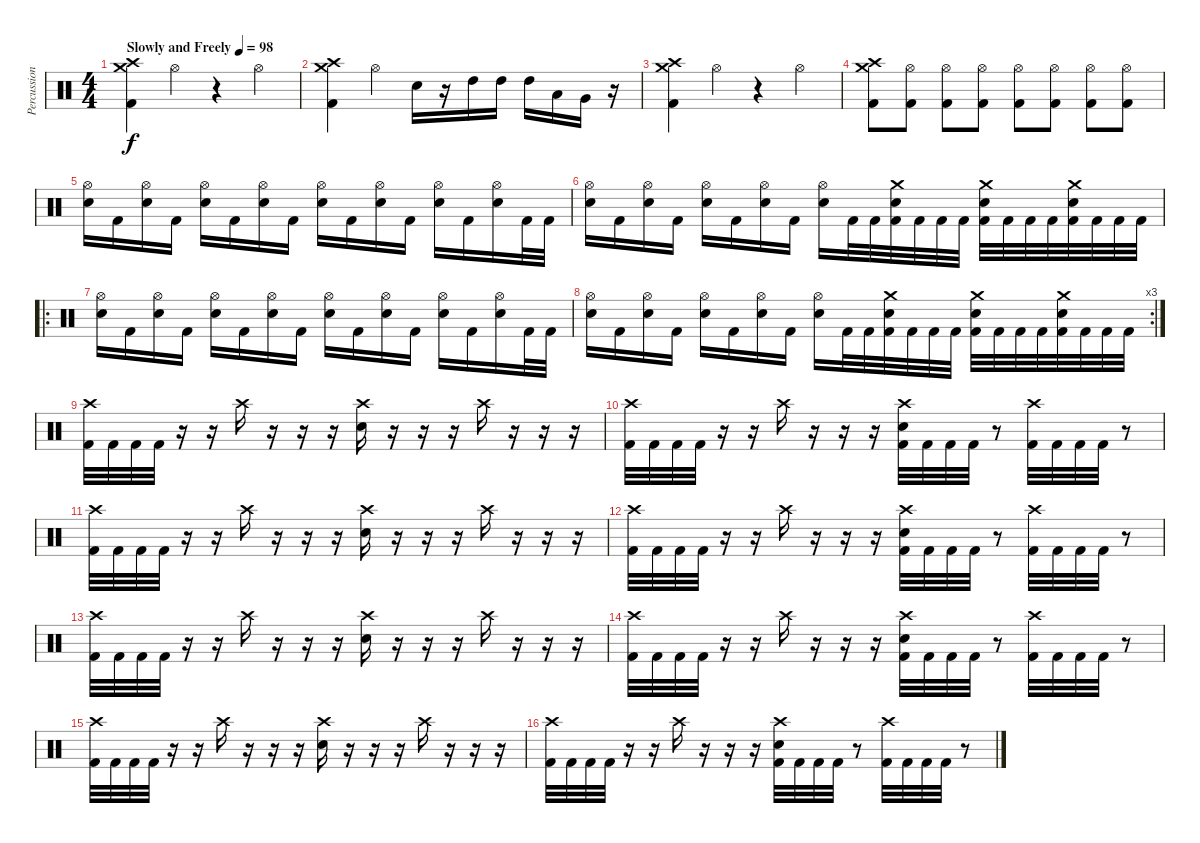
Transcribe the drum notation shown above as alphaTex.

\track ("Percussion" "Percussion") {instrument percussion}
\staff {score}
\articulation defaults
\ts (4 4)
\tempo (98 "Slowly and Freely")
\clef neutral
\ks c
("Crash medium (hit)" "Crash high (hit)" "Kick (hit) 2").4{dy f} "Hi-Hat (open)".4 r.4 "Hi-Hat (open)".4 |
("Crash medium (hit)" "Crash high (hit)" "Kick (hit) 2").4 "Hi-Hat (open)".4 "Snare (hit) 2".16 r.16 "High Tom (hit)".16 "High Tom (hit)".16 "High Tom (hit)".16 "Low Tom (hit)".16 "Very Low Tom (hit)".16 r.16 |
("Crash medium (hit)" "Crash high (hit)" "Kick (hit) 2").4 "Hi-Hat (open)".4 r.4 "Hi-Hat (open)".4 |
("Crash medium (hit)" "Crash high (hit)" "Kick (hit) 2").8 ("Hi-Hat (open)" "Kick (hit) 2").8 ("Hi-Hat (open)" "Kick (hit) 2").8 ("Hi-Hat (open)" "Kick (hit) 2").8 ("Hi-Hat (open)" "Kick (hit) 2").8 ("Hi-Hat (open)" "Kick (hit) 2").8 ("Hi-Hat (open)" "Kick (hit) 2").8 ("Hi-Hat (open)" "Kick (hit) 2").8 |
("Hi-Hat (open)" "Snare (hit) 2").16 "Kick (hit) 2".16 ("Hi-Hat (open)" "Snare (hit) 2").16 "Kick (hit) 2".16 ("Hi-Hat (open)" "Snare (hit) 2").16 "Kick (hit) 2".16 ("Hi-Hat (open)" "Snare (hit) 2").16 "Kick (hit) 2".16 ("Hi-Hat (open)" "Snare (hit) 2").16 "Kick (hit) 2".16 ("Hi-Hat (open)" "Snare (hit) 2").16 "Kick (hit) 2".16 ("Hi-Hat (open)" "Snare (hit) 2").16 "Kick (hit) 2".16 ("Hi-Hat (open)" "Snare (hit) 2").16 "Kick (hit) 2".32 "Kick (hit) 2".32 |
("Hi-Hat (open)" "Snare (hit) 2").16 "Kick (hit) 2".16 ("Hi-Hat (open)" "Snare (hit) 2").16 "Kick (hit) 2".16 ("Hi-Hat (open)" "Snare (hit) 2").16 "Kick (hit) 2".16 ("Hi-Hat (open)" "Snare (hit) 2").16 "Kick (hit) 2".16 ("Hi-Hat (open)" "Snare (hit) 2").16 "Kick (hit) 2".32 "Kick (hit) 2".32 ("Crash medium (hit)" "Snare (hit) 2" "Kick (hit) 2").32 "Kick (hit) 2".32 "Kick (hit) 2".32 "Kick (hit) 2".32 ("Crash medium (hit)" "Snare (hit) 2" "Kick (hit) 2").32 "Kick (hit) 2".32 "Kick (hit) 2".32 "Kick (hit) 2".32 ("Crash medium (hit)" "Snare (hit) 2" "Kick (hit) 2").32 "Kick (hit) 2".32 "Kick (hit) 2".32 "Kick (hit) 2".32 |
\ro
("Hi-Hat (open)" "Snare (hit) 2").16 "Kick (hit) 2".16 ("Hi-Hat (open)" "Snare (hit) 2").16 "Kick (hit) 2".16 ("Hi-Hat (open)" "Snare (hit) 2").16 "Kick (hit) 2".16 ("Hi-Hat (open)" "Snare (hit) 2").16 "Kick (hit) 2".16 ("Hi-Hat (open)" "Snare (hit) 2").16 "Kick (hit) 2".16 ("Hi-Hat (open)" "Snare (hit) 2").16 "Kick (hit) 2".16 ("Hi-Hat (open)" "Snare (hit) 2").16 "Kick (hit) 2".16 ("Hi-Hat (open)" "Snare (hit) 2").16 "Kick (hit) 2".32 "Kick (hit) 2".32 |
\rc 3
("Hi-Hat (open)" "Snare (hit) 2").16 "Kick (hit) 2".16 ("Hi-Hat (open)" "Snare (hit) 2").16 "Kick (hit) 2".16 ("Hi-Hat (open)" "Snare (hit) 2").16 "Kick (hit) 2".16 ("Hi-Hat (open)" "Snare (hit) 2").16 "Kick (hit) 2".16 ("Hi-Hat (open)" "Snare (hit) 2").16 "Kick (hit) 2".32 "Kick (hit) 2".32 ("Crash medium (hit)" "Snare (hit) 2" "Kick (hit) 2").32 "Kick (hit) 2".32 "Kick (hit) 2".32 "Kick (hit) 2".32 ("Crash medium (hit)" "Snare (hit) 2" "Kick (hit) 2").32 "Kick (hit) 2".32 "Kick (hit) 2".32 "Kick (hit) 2".32 ("Crash medium (hit)" "Snare (hit) 2" "Kick (hit) 2").32 "Kick (hit) 2".32 "Kick (hit) 2".32 "Kick (hit) 2".32 |
("Crash high (hit)" "Kick (hit) 2").32 "Kick (hit) 2".32 "Kick (hit) 2".32 "Kick (hit) 2".32 r.16 r.16 "Crash high (hit)".16 r.16 r.16 r.16 ("Snare (hit) 2" "Crash high (hit)").16 r.16 r.16 r.16 "Crash high (hit)".16 r.16 r.16 r.16 |
("Crash high (hit)" "Kick (hit) 2").32 "Kick (hit) 2".32 "Kick (hit) 2".32 "Kick (hit) 2".32 r.16 r.16 "Crash high (hit)".16 r.16 r.16 r.16 ("Snare (hit) 2" "Crash high (hit)" "Kick (hit) 2").32 "Kick (hit) 2".32 "Kick (hit) 2".32 "Kick (hit) 2".32 r.8 ("Crash high (hit)" "Kick (hit) 2").32 "Kick (hit) 2".32 "Kick (hit) 2".32 "Kick (hit) 2".32 r.8 |
("Crash high (hit)" "Kick (hit) 2").32 "Kick (hit) 2".32 "Kick (hit) 2".32 "Kick (hit) 2".32 r.16 r.16 "Crash high (hit)".16 r.16 r.16 r.16 ("Snare (hit) 2" "Crash high (hit)").16 r.16 r.16 r.16 "Crash high (hit)".16 r.16 r.16 r.16 |
("Crash high (hit)" "Kick (hit) 2").32 "Kick (hit) 2".32 "Kick (hit) 2".32 "Kick (hit) 2".32 r.16 r.16 "Crash high (hit)".16 r.16 r.16 r.16 ("Snare (hit) 2" "Crash high (hit)" "Kick (hit) 2").32 "Kick (hit) 2".32 "Kick (hit) 2".32 "Kick (hit) 2".32 r.8 ("Crash high (hit)" "Kick (hit) 2").32 "Kick (hit) 2".32 "Kick (hit) 2".32 "Kick (hit) 2".32 r.8 |
("Crash high (hit)" "Kick (hit) 2").32 "Kick (hit) 2".32 "Kick (hit) 2".32 "Kick (hit) 2".32 r.16 r.16 "Crash high (hit)".16 r.16 r.16 r.16 ("Snare (hit) 2" "Crash high (hit)").16 r.16 r.16 r.16 "Crash high (hit)".16 r.16 r.16 r.16 |
("Crash high (hit)" "Kick (hit) 2").32 "Kick (hit) 2".32 "Kick (hit) 2".32 "Kick (hit) 2".32 r.16 r.16 "Crash high (hit)".16 r.16 r.16 r.16 ("Snare (hit) 2" "Crash high (hit)" "Kick (hit) 2").32 "Kick (hit) 2".32 "Kick (hit) 2".32 "Kick (hit) 2".32 r.8 ("Crash high (hit)" "Kick (hit) 2").32 "Kick (hit) 2".32 "Kick (hit) 2".32 "Kick (hit) 2".32 r.8 |
("Crash high (hit)" "Kick (hit) 2").32 "Kick (hit) 2".32 "Kick (hit) 2".32 "Kick (hit) 2".32 r.16 r.16 "Crash high (hit)".16 r.16 r.16 r.16 ("Snare (hit) 2" "Crash high (hit)").16 r.16 r.16 r.16 "Crash high (hit)".16 r.16 r.16 r.16 |
("Crash high (hit)" "Kick (hit) 2").32 "Kick (hit) 2".32 "Kick (hit) 2".32 "Kick (hit) 2".32 r.16 r.16 "Crash high (hit)".16 r.16 r.16 r.16 ("Snare (hit) 2" "Crash high (hit)" "Kick (hit) 2").32 "Kick (hit) 2".32 "Kick (hit) 2".32 "Kick (hit) 2".32 r.8 ("Crash high (hit)" "Kick (hit) 2").32 "Kick (hit) 2".32 "Kick (hit) 2".32 "Kick (hit) 2".32 r.8
